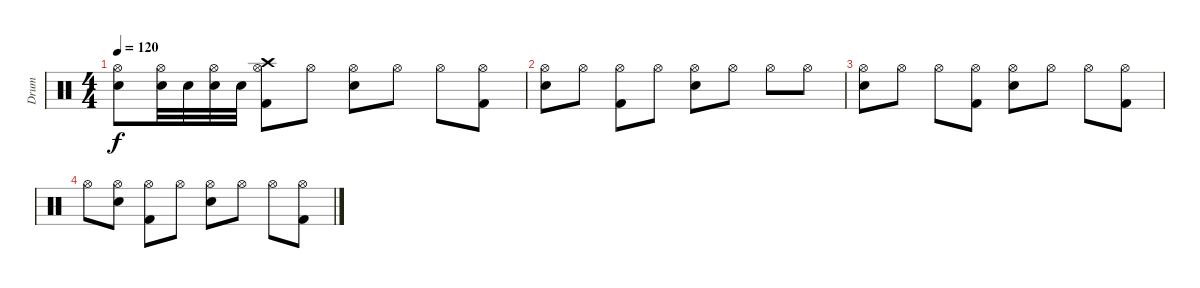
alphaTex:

\track ("Drum" "Drum") {instrument percussion}
\staff {score}
\articulation defaults
\ts (4 4)
\tempo 120
\clef neutral
\ks c
("Hi-Hat (open)" "Electric Snare (hit)").8{dy f} ("Hi-Hat (open)" "Electric Snare (hit)").32 "Electric Snare (hit)".32 ("Hi-Hat (open)" "Electric Snare (hit)").32 "Electric Snare (hit)".32 ("Kick (hit) 2" "Crash high (hit)" "Hi-Hat (open)").8 "Hi-Hat (open)".8 ("Electric Snare (hit)" "Hi-Hat (open)").8 "Hi-Hat (open)".8 "Hi-Hat (open)".8 ("Hi-Hat (open)" "Kick (hit) 2").8 |
("Electric Snare (hit)" "Hi-Hat (open)").8 "Hi-Hat (open)".8 ("Kick (hit) 2" "Hi-Hat (open)").8 "Hi-Hat (open)".8 ("Electric Snare (hit)" "Hi-Hat (open)").8 "Hi-Hat (open)".8 "Hi-Hat (open)".8 "Hi-Hat (open)".8 |
("Electric Snare (hit)" "Hi-Hat (open)").8 "Hi-Hat (open)".8 "Hi-Hat (open)".8 ("Hi-Hat (open)" "Kick (hit) 2").8 ("Electric Snare (hit)" "Hi-Hat (open)").8 "Hi-Hat (open)".8 "Hi-Hat (open)".8 ("Kick (hit) 2" "Hi-Hat (open)").8 |
"Hi-Hat (open)".8 ("Hi-Hat (open)" "Electric Snare (hit)").8 ("Hi-Hat (open)" "Kick (hit) 2").8 "Hi-Hat (open)".8 ("Hi-Hat (open)" "Electric Snare (hit)").8 "Hi-Hat (open)".8 "Hi-Hat (open)".8 ("Hi-Hat (open)" "Kick (hit) 2").8
